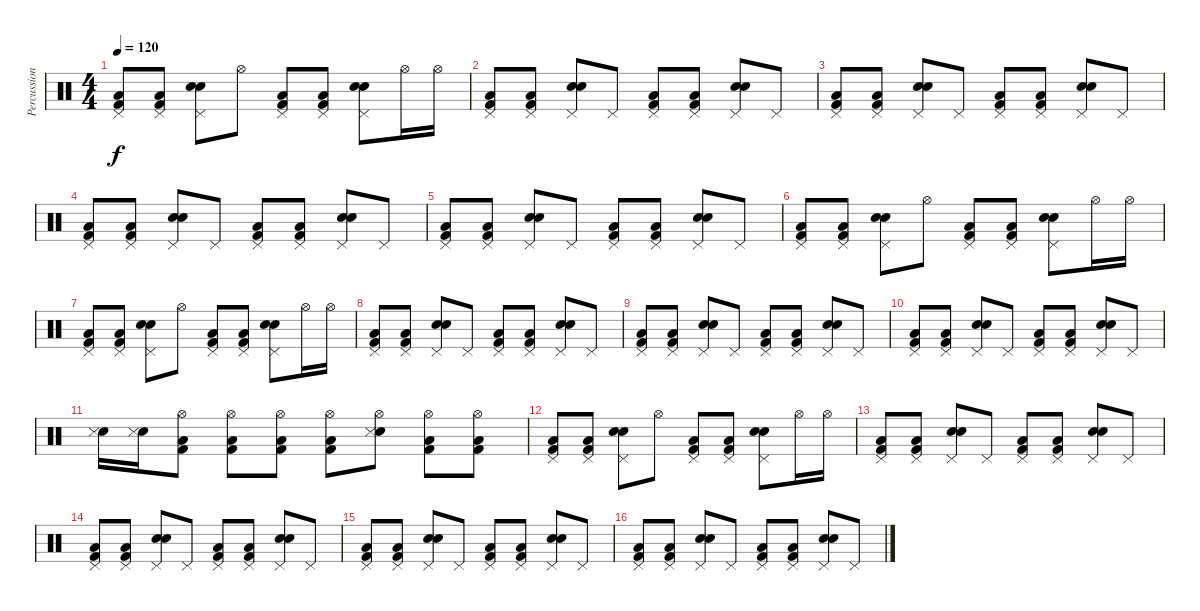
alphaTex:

\track ("Percussions" "Percussion") {instrument percussion}
\staff {score}
\articulation defaults
\ts (4 4)
\tempo 120
\clef neutral
\ks c
("Pedal Hi-Hat (hit)" "Kick (hit) 2" "Low Floor Tom (hit)").8{dy f} ("Pedal Hi-Hat (hit)" "Kick (hit) 2" "Low Floor Tom (hit)").8 ("Pedal Hi-Hat (hit)" "Snare (hit) 2" "Electric Snare (hit)").8 "Hi-Hat (open)".8 ("Pedal Hi-Hat (hit)" "Kick (hit) 2" "Low Floor Tom (hit)").8 ("Pedal Hi-Hat (hit)" "Kick (hit) 2" "Low Floor Tom (hit)").8 ("Pedal Hi-Hat (hit)" "Snare (hit) 2" "Electric Snare (hit)").8 "Hi-Hat (open)".16 "Hi-Hat (open)".16 |
("Pedal Hi-Hat (hit)" "Kick (hit) 2" "Low Floor Tom (hit)").8 ("Pedal Hi-Hat (hit)" "Kick (hit) 2" "Low Floor Tom (hit)").8 ("Pedal Hi-Hat (hit)" "Snare (hit) 2" "Electric Snare (hit)").8 "Pedal Hi-Hat (hit)".8 ("Pedal Hi-Hat (hit)" "Kick (hit) 2" "Low Floor Tom (hit)").8 ("Pedal Hi-Hat (hit)" "Kick (hit) 2" "Low Floor Tom (hit)").8 ("Pedal Hi-Hat (hit)" "Snare (hit) 2" "Electric Snare (hit)").8 "Pedal Hi-Hat (hit)".8 |
("Pedal Hi-Hat (hit)" "Kick (hit) 2" "Low Floor Tom (hit)").8 ("Pedal Hi-Hat (hit)" "Kick (hit) 2" "Low Floor Tom (hit)").8 ("Pedal Hi-Hat (hit)" "Snare (hit) 2" "Electric Snare (hit)").8 "Pedal Hi-Hat (hit)".8 ("Pedal Hi-Hat (hit)" "Kick (hit) 2" "Low Floor Tom (hit)").8 ("Pedal Hi-Hat (hit)" "Kick (hit) 2" "Low Floor Tom (hit)").8 ("Pedal Hi-Hat (hit)" "Snare (hit) 2" "Electric Snare (hit)").8 "Pedal Hi-Hat (hit)".8 |
("Pedal Hi-Hat (hit)" "Kick (hit) 2" "Low Floor Tom (hit)").8 ("Pedal Hi-Hat (hit)" "Kick (hit) 2" "Low Floor Tom (hit)").8 ("Pedal Hi-Hat (hit)" "Snare (hit) 2" "Electric Snare (hit)").8 "Pedal Hi-Hat (hit)".8 ("Pedal Hi-Hat (hit)" "Kick (hit) 2" "Low Floor Tom (hit)").8 ("Pedal Hi-Hat (hit)" "Kick (hit) 2" "Low Floor Tom (hit)").8 ("Pedal Hi-Hat (hit)" "Snare (hit) 2" "Electric Snare (hit)").8 "Pedal Hi-Hat (hit)".8 |
("Pedal Hi-Hat (hit)" "Kick (hit) 2" "Low Floor Tom (hit)").8 ("Pedal Hi-Hat (hit)" "Kick (hit) 2" "Low Floor Tom (hit)").8 ("Pedal Hi-Hat (hit)" "Snare (hit) 2" "Electric Snare (hit)").8 "Pedal Hi-Hat (hit)".8 ("Pedal Hi-Hat (hit)" "Kick (hit) 2" "Low Floor Tom (hit)").8 ("Pedal Hi-Hat (hit)" "Kick (hit) 2" "Low Floor Tom (hit)").8 ("Pedal Hi-Hat (hit)" "Snare (hit) 2" "Electric Snare (hit)").8 "Pedal Hi-Hat (hit)".8 |
("Pedal Hi-Hat (hit)" "Kick (hit) 2" "Low Floor Tom (hit)").8 ("Pedal Hi-Hat (hit)" "Kick (hit) 2" "Low Floor Tom (hit)").8 ("Pedal Hi-Hat (hit)" "Snare (hit) 2" "Electric Snare (hit)").8 "Hi-Hat (open)".8 ("Pedal Hi-Hat (hit)" "Kick (hit) 2" "Low Floor Tom (hit)").8 ("Pedal Hi-Hat (hit)" "Kick (hit) 2" "Low Floor Tom (hit)").8 ("Pedal Hi-Hat (hit)" "Snare (hit) 2" "Electric Snare (hit)").8 "Hi-Hat (open)".16 "Hi-Hat (open)".16 |
("Pedal Hi-Hat (hit)" "Kick (hit) 2" "Low Floor Tom (hit)").8 ("Pedal Hi-Hat (hit)" "Kick (hit) 2" "Low Floor Tom (hit)").8 ("Pedal Hi-Hat (hit)" "Snare (hit) 2" "Electric Snare (hit)").8 "Hi-Hat (open)".8 ("Pedal Hi-Hat (hit)" "Kick (hit) 2" "Low Floor Tom (hit)").8 ("Pedal Hi-Hat (hit)" "Kick (hit) 2" "Low Floor Tom (hit)").8 ("Pedal Hi-Hat (hit)" "Snare (hit) 2" "Electric Snare (hit)").8 "Hi-Hat (open)".16 "Hi-Hat (open)".16 |
("Pedal Hi-Hat (hit)" "Kick (hit) 2" "Low Floor Tom (hit)").8 ("Pedal Hi-Hat (hit)" "Kick (hit) 2" "Low Floor Tom (hit)").8 ("Pedal Hi-Hat (hit)" "Snare (hit) 2" "Electric Snare (hit)").8 "Pedal Hi-Hat (hit)".8 ("Pedal Hi-Hat (hit)" "Kick (hit) 2" "Low Floor Tom (hit)").8 ("Pedal Hi-Hat (hit)" "Kick (hit) 2" "Low Floor Tom (hit)").8 ("Pedal Hi-Hat (hit)" "Snare (hit) 2" "Electric Snare (hit)").8 "Pedal Hi-Hat (hit)".8 |
("Pedal Hi-Hat (hit)" "Kick (hit) 2" "Low Floor Tom (hit)").8 ("Pedal Hi-Hat (hit)" "Kick (hit) 2" "Low Floor Tom (hit)").8 ("Pedal Hi-Hat (hit)" "Snare (hit) 2" "Electric Snare (hit)").8 "Pedal Hi-Hat (hit)".8 ("Pedal Hi-Hat (hit)" "Kick (hit) 2" "Low Floor Tom (hit)").8 ("Pedal Hi-Hat (hit)" "Kick (hit) 2" "Low Floor Tom (hit)").8 ("Pedal Hi-Hat (hit)" "Snare (hit) 2" "Electric Snare (hit)").8 "Pedal Hi-Hat (hit)".8 |
("Pedal Hi-Hat (hit)" "Kick (hit) 2" "Low Floor Tom (hit)").8 ("Pedal Hi-Hat (hit)" "Kick (hit) 2" "Low Floor Tom (hit)").8 ("Pedal Hi-Hat (hit)" "Snare (hit) 2" "Electric Snare (hit)").8 "Pedal Hi-Hat (hit)".8 ("Pedal Hi-Hat (hit)" "Kick (hit) 2" "Low Floor Tom (hit)").8 ("Pedal Hi-Hat (hit)" "Kick (hit) 2" "Low Floor Tom (hit)").8 ("Pedal Hi-Hat (hit)" "Snare (hit) 2" "Electric Snare (hit)").8 "Pedal Hi-Hat (hit)".8 |
("Snare (hit) 2" "Snare (side stick) 3").16 ("Snare (hit) 2" "Snare (side stick) 3").16 ("Hi-Hat (open)" "Kick (hit) 2" "Low Floor Tom (hit)").8 ("Hi-Hat (open)" "Kick (hit) 2" "Low Floor Tom (hit)").8 ("Hi-Hat (open)" "Kick (hit) 2" "Low Floor Tom (hit)").8 ("Hi-Hat (open)" "Kick (hit) 2" "Low Floor Tom (hit)").8 ("Hi-Hat (open)" "Snare (hit) 2" "Snare (side stick) 3").8 ("Hi-Hat (open)" "Kick (hit) 2" "Low Floor Tom (hit)").8 ("Hi-Hat (open)" "Kick (hit) 2" "Low Floor Tom (hit)").8 |
("Pedal Hi-Hat (hit)" "Kick (hit) 2" "Low Floor Tom (hit)").8 ("Pedal Hi-Hat (hit)" "Kick (hit) 2" "Low Floor Tom (hit)").8 ("Pedal Hi-Hat (hit)" "Snare (hit) 2" "Electric Snare (hit)").8 "Hi-Hat (open)".8 ("Pedal Hi-Hat (hit)" "Kick (hit) 2" "Low Floor Tom (hit)").8 ("Pedal Hi-Hat (hit)" "Kick (hit) 2" "Low Floor Tom (hit)").8 ("Pedal Hi-Hat (hit)" "Snare (hit) 2" "Electric Snare (hit)").8 "Hi-Hat (open)".16 "Hi-Hat (open)".16 |
("Pedal Hi-Hat (hit)" "Kick (hit) 2" "Low Floor Tom (hit)").8 ("Pedal Hi-Hat (hit)" "Kick (hit) 2" "Low Floor Tom (hit)").8 ("Pedal Hi-Hat (hit)" "Snare (hit) 2" "Electric Snare (hit)").8 "Pedal Hi-Hat (hit)".8 ("Pedal Hi-Hat (hit)" "Kick (hit) 2" "Low Floor Tom (hit)").8 ("Pedal Hi-Hat (hit)" "Kick (hit) 2" "Low Floor Tom (hit)").8 ("Pedal Hi-Hat (hit)" "Snare (hit) 2" "Electric Snare (hit)").8 "Pedal Hi-Hat (hit)".8 |
("Pedal Hi-Hat (hit)" "Kick (hit) 2" "Low Floor Tom (hit)").8 ("Pedal Hi-Hat (hit)" "Kick (hit) 2" "Low Floor Tom (hit)").8 ("Pedal Hi-Hat (hit)" "Snare (hit) 2" "Electric Snare (hit)").8 "Pedal Hi-Hat (hit)".8 ("Pedal Hi-Hat (hit)" "Kick (hit) 2" "Low Floor Tom (hit)").8 ("Pedal Hi-Hat (hit)" "Kick (hit) 2" "Low Floor Tom (hit)").8 ("Pedal Hi-Hat (hit)" "Snare (hit) 2" "Electric Snare (hit)").8 "Pedal Hi-Hat (hit)".8 |
("Pedal Hi-Hat (hit)" "Kick (hit) 2" "Low Floor Tom (hit)").8 ("Pedal Hi-Hat (hit)" "Kick (hit) 2" "Low Floor Tom (hit)").8 ("Pedal Hi-Hat (hit)" "Snare (hit) 2" "Electric Snare (hit)").8 "Pedal Hi-Hat (hit)".8 ("Pedal Hi-Hat (hit)" "Kick (hit) 2" "Low Floor Tom (hit)").8 ("Pedal Hi-Hat (hit)" "Kick (hit) 2" "Low Floor Tom (hit)").8 ("Pedal Hi-Hat (hit)" "Snare (hit) 2" "Electric Snare (hit)").8 "Pedal Hi-Hat (hit)".8 |
("Pedal Hi-Hat (hit)" "Kick (hit) 2" "Low Floor Tom (hit)").8 ("Pedal Hi-Hat (hit)" "Kick (hit) 2" "Low Floor Tom (hit)").8 ("Pedal Hi-Hat (hit)" "Snare (hit) 2" "Electric Snare (hit)").8 "Pedal Hi-Hat (hit)".8 ("Pedal Hi-Hat (hit)" "Kick (hit) 2" "Low Floor Tom (hit)").8 ("Pedal Hi-Hat (hit)" "Kick (hit) 2" "Low Floor Tom (hit)").8 ("Pedal Hi-Hat (hit)" "Snare (hit) 2" "Electric Snare (hit)").8 "Pedal Hi-Hat (hit)".8
